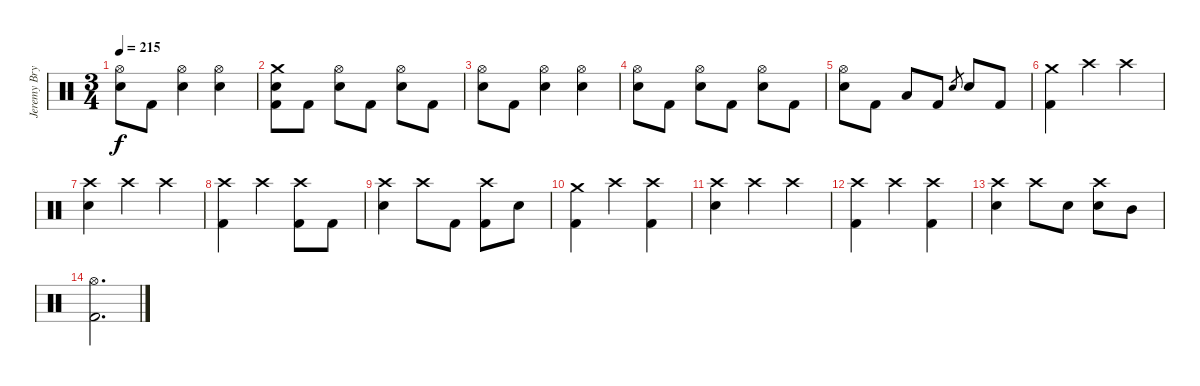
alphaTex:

\track ("Jeremy Bryan - Drums" "Jeremy Bry") {instrument percussion}
\staff {score}
\articulation defaults
\ts (3 4)
\tempo 215
\clef neutral
\ks c
("Hi-Hat (open)" "Electric Snare (hit)").8{dy f} "Kick (hit) 2".8 ("Hi-Hat (open)" "Electric Snare (hit)").4 ("Hi-Hat (open)" "Electric Snare (hit)").4 |
("Crash medium (hit)" "Electric Snare (hit)" "Kick (hit) 2").8 "Kick (hit) 2".8 ("Hi-Hat (open)" "Electric Snare (hit)").8 "Kick (hit) 2".8 ("Hi-Hat (open)" "Electric Snare (hit)").8 "Kick (hit) 2".8 |
("Hi-Hat (open)" "Electric Snare (hit)").8 "Kick (hit) 2".8 ("Hi-Hat (open)" "Electric Snare (hit)").4 ("Hi-Hat (open)" "Electric Snare (hit)").4 |
("Hi-Hat (open)" "Electric Snare (hit)").8 "Kick (hit) 2".8 ("Hi-Hat (open)" "Electric Snare (hit)").8 "Kick (hit) 2".8 ("Hi-Hat (open)" "Electric Snare (hit)").8 "Kick (hit) 2".8 |
("Hi-Hat (open)" "Electric Snare (hit)").8 "Kick (hit) 2".8 "Low Tom (hit)".8 "Kick (hit) 2".8 "Electric Snare (hit)".8{gr} "Electric Snare (hit)".8 "Kick (hit) 2".8 |
("Crash medium (hit)" "Kick (hit) 2").4 "Crash high (hit)".4 "Crash high (hit)".4 |
("Crash high (hit)" "Electric Snare (hit)").4 "Crash high (hit)".4 "Crash high (hit)".4 |
("Crash high (hit)" "Kick (hit) 2").4 "Crash high (hit)".4 ("Crash high (hit)" "Kick (hit) 2").8 "Kick (hit) 2".8 |
("Crash high (hit)" "Electric Snare (hit)").4 "Crash high (hit)".8 "Kick (hit) 2".8 ("Crash high (hit)" "Kick (hit) 2").8 "Electric Snare (hit)".8 |
("Crash medium (hit)" "Kick (hit) 2").4 "Crash high (hit)".4 ("Crash high (hit)" "Kick (hit) 2").4 |
("Crash high (hit)" "Electric Snare (hit)").4 "Crash high (hit)".4 "Crash high (hit)".4 |
("Crash high (hit)" "Kick (hit) 2").4 "Crash high (hit)".4 ("Crash high (hit)" "Kick (hit) 2").4 |
("Crash high (hit)" "Electric Snare (hit)").4 "Crash high (hit)".8 "Electric Snare (hit)".8 ("Crash high (hit)" "Electric Snare (hit)").8 "Mid Tom (hit)".8 |
("Hi-Hat (open)" "Kick (hit) 2").2{d}
